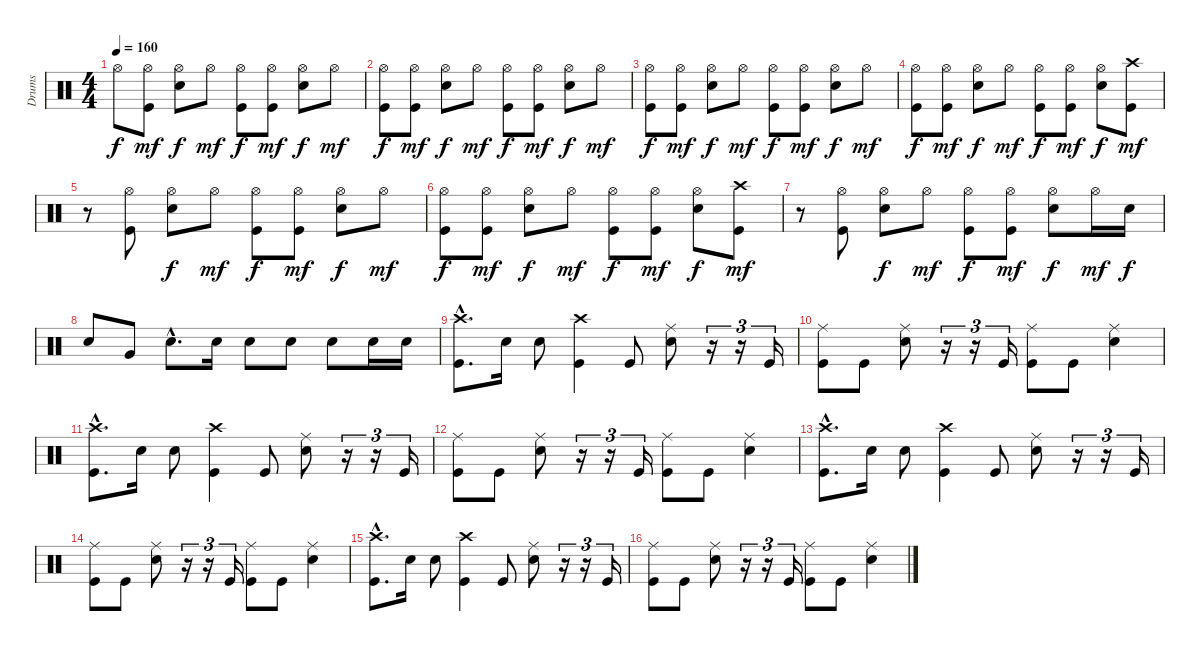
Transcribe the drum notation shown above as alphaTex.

\track ("Drums" "Drums") {instrument percussion}
\staff {score}
\articulation defaults
\ts (4 4)
\tempo 160
\clef neutral
\ks c "Hi-Hat (open)".8{dy f}
("Hi-Hat (open)" "Kick (hit)").8{dy mf} ("Hi-Hat (open)" "Snare (hit) 2").8{dy f} "Hi-Hat (open)".8{dy mf} ("Hi-Hat (open)" "Kick (hit)").8{dy f} ("Hi-Hat (open)" "Kick (hit)").8{dy mf} ("Hi-Hat (open)" "Snare (hit) 2").8{dy f} "Hi-Hat (open)".8{dy mf} |
("Hi-Hat (open)" "Kick (hit)").8{dy f} ("Hi-Hat (open)" "Kick (hit)").8{dy mf} ("Hi-Hat (open)" "Snare (hit) 2").8{dy f} "Hi-Hat (open)".8{dy mf} ("Hi-Hat (open)" "Kick (hit)").8{dy f} ("Hi-Hat (open)" "Kick (hit)").8{dy mf} ("Hi-Hat (open)" "Snare (hit) 2").8{dy f} "Hi-Hat (open)".8{dy mf} |
("Hi-Hat (open)" "Kick (hit)").8{dy f} ("Hi-Hat (open)" "Kick (hit)").8{dy mf} ("Hi-Hat (open)" "Snare (hit) 2").8{dy f} "Hi-Hat (open)".8{dy mf} ("Hi-Hat (open)" "Kick (hit)").8{dy f} ("Hi-Hat (open)" "Kick (hit)").8{dy mf} ("Hi-Hat (open)" "Snare (hit) 2").8{dy f} "Hi-Hat (open)".8{dy mf} |
("Hi-Hat (open)" "Kick (hit)").8{dy f} ("Hi-Hat (open)" "Kick (hit)").8{dy mf} ("Hi-Hat (open)" "Snare (hit) 2").8{dy f} "Hi-Hat (open)".8{dy mf} ("Hi-Hat (open)" "Kick (hit)").8{dy f} ("Hi-Hat (open)" "Kick (hit)").8{dy mf} ("Hi-Hat (open)" "Snare (hit) 2").8{dy f} ("Crash high (hit)" "Kick (hit)").8{dy mf} |
r.8 ("Hi-Hat (open)" "Kick (hit)").8 ("Hi-Hat (open)" "Snare (hit) 2").8{dy f} "Hi-Hat (open)".8{dy mf} ("Hi-Hat (open)" "Kick (hit)").8{dy f} ("Hi-Hat (open)" "Kick (hit)").8{dy mf} ("Hi-Hat (open)" "Snare (hit) 2").8{dy f} "Hi-Hat (open)".8{dy mf} |
("Hi-Hat (open)" "Kick (hit)").8{dy f} ("Hi-Hat (open)" "Kick (hit)").8{dy mf} ("Hi-Hat (open)" "Snare (hit) 2").8{dy f} "Hi-Hat (open)".8{dy mf} ("Hi-Hat (open)" "Kick (hit)").8{dy f} ("Hi-Hat (open)" "Kick (hit)").8{dy mf} ("Hi-Hat (open)" "Snare (hit) 2").8{dy f} ("Crash high (hit)" "Kick (hit)").8{dy mf} |
r.8 ("Hi-Hat (open)" "Kick (hit)").8 ("Hi-Hat (open)" "Snare (hit) 2").8{dy f} "Hi-Hat (open)".8{dy mf} ("Hi-Hat (open)" "Kick (hit)").8{dy f} ("Hi-Hat (open)" "Kick (hit)").8{dy mf} ("Hi-Hat (open)" "Snare (hit) 2").8{dy f} "Hi-Hat (open)".16{dy mf} "Snare (hit) 2".16{dy f} |
"Snare (hit) 2".8 "Very Low Tom (hit)".8 "Snare (hit) 2"{hac}.8{d} "Snare (hit) 2".16 "Snare (hit) 2".8 "Snare (hit) 2".8 "Snare (hit) 2".8 "Snare (hit) 2".16 "Snare (hit) 2".16 |
("Crash high (hit)"{hac} "Kick (hit)"{hac}).8{d} "Snare (hit) 2".16 "Snare (hit) 2".8 ("Crash high (hit)" "Kick (hit)").4 "Kick (hit)".8 ("Ride (middle)" "Snare (hit) 2").8 r.16{tu (3 2)} r.16{tu (3 2)} "Kick (hit)".16{tu (3 2)} |
("Ride (middle)" "Kick (hit)").8 "Kick (hit)".8 ("Ride (middle)" "Snare (hit) 2").8 r.16{tu (3 2)} r.16{tu (3 2)} "Kick (hit)".16{tu (3 2)} ("Ride (middle)" "Kick (hit)").8 "Kick (hit)".8 ("Ride (middle)" "Snare (hit) 2").4 |
("Crash high (hit)"{hac} "Kick (hit)"{hac}).8{d} "Snare (hit) 2".16 "Snare (hit) 2".8 ("Crash high (hit)" "Kick (hit)").4 "Kick (hit)".8 ("Ride (middle)" "Snare (hit) 2").8 r.16{tu (3 2)} r.16{tu (3 2)} "Kick (hit)".16{tu (3 2)} |
("Ride (middle)" "Kick (hit)").8 "Kick (hit)".8 ("Ride (middle)" "Snare (hit) 2").8 r.16{tu (3 2)} r.16{tu (3 2)} "Kick (hit)".16{tu (3 2)} ("Ride (middle)" "Kick (hit)").8 "Kick (hit)".8 ("Ride (middle)" "Snare (hit) 2").4 |
("Crash high (hit)"{hac} "Kick (hit)"{hac}).8{d} "Snare (hit) 2".16 "Snare (hit) 2".8 ("Crash high (hit)" "Kick (hit)").4 "Kick (hit)".8 ("Ride (middle)" "Snare (hit) 2").8 r.16{tu (3 2)} r.16{tu (3 2)} "Kick (hit)".16{tu (3 2)} |
("Ride (middle)" "Kick (hit)").8 "Kick (hit)".8 ("Ride (middle)" "Snare (hit) 2").8 r.16{tu (3 2)} r.16{tu (3 2)} "Kick (hit)".16{tu (3 2)} ("Ride (middle)" "Kick (hit)").8 "Kick (hit)".8 ("Ride (middle)" "Snare (hit) 2").4 |
("Crash high (hit)"{hac} "Kick (hit)"{hac}).8{d} "Snare (hit) 2".16 "Snare (hit) 2".8 ("Crash high (hit)" "Kick (hit)").4 "Kick (hit)".8 ("Ride (middle)" "Snare (hit) 2").8 r.16{tu (3 2)} r.16{tu (3 2)} "Kick (hit)".16{tu (3 2)} |
("Ride (middle)" "Kick (hit)").8 "Kick (hit)".8 ("Ride (middle)" "Snare (hit) 2").8 r.16{tu (3 2)} r.16{tu (3 2)} "Kick (hit)".16{tu (3 2)} ("Ride (middle)" "Kick (hit)").8 "Kick (hit)".8 ("Ride (middle)" "Snare (hit) 2").4
